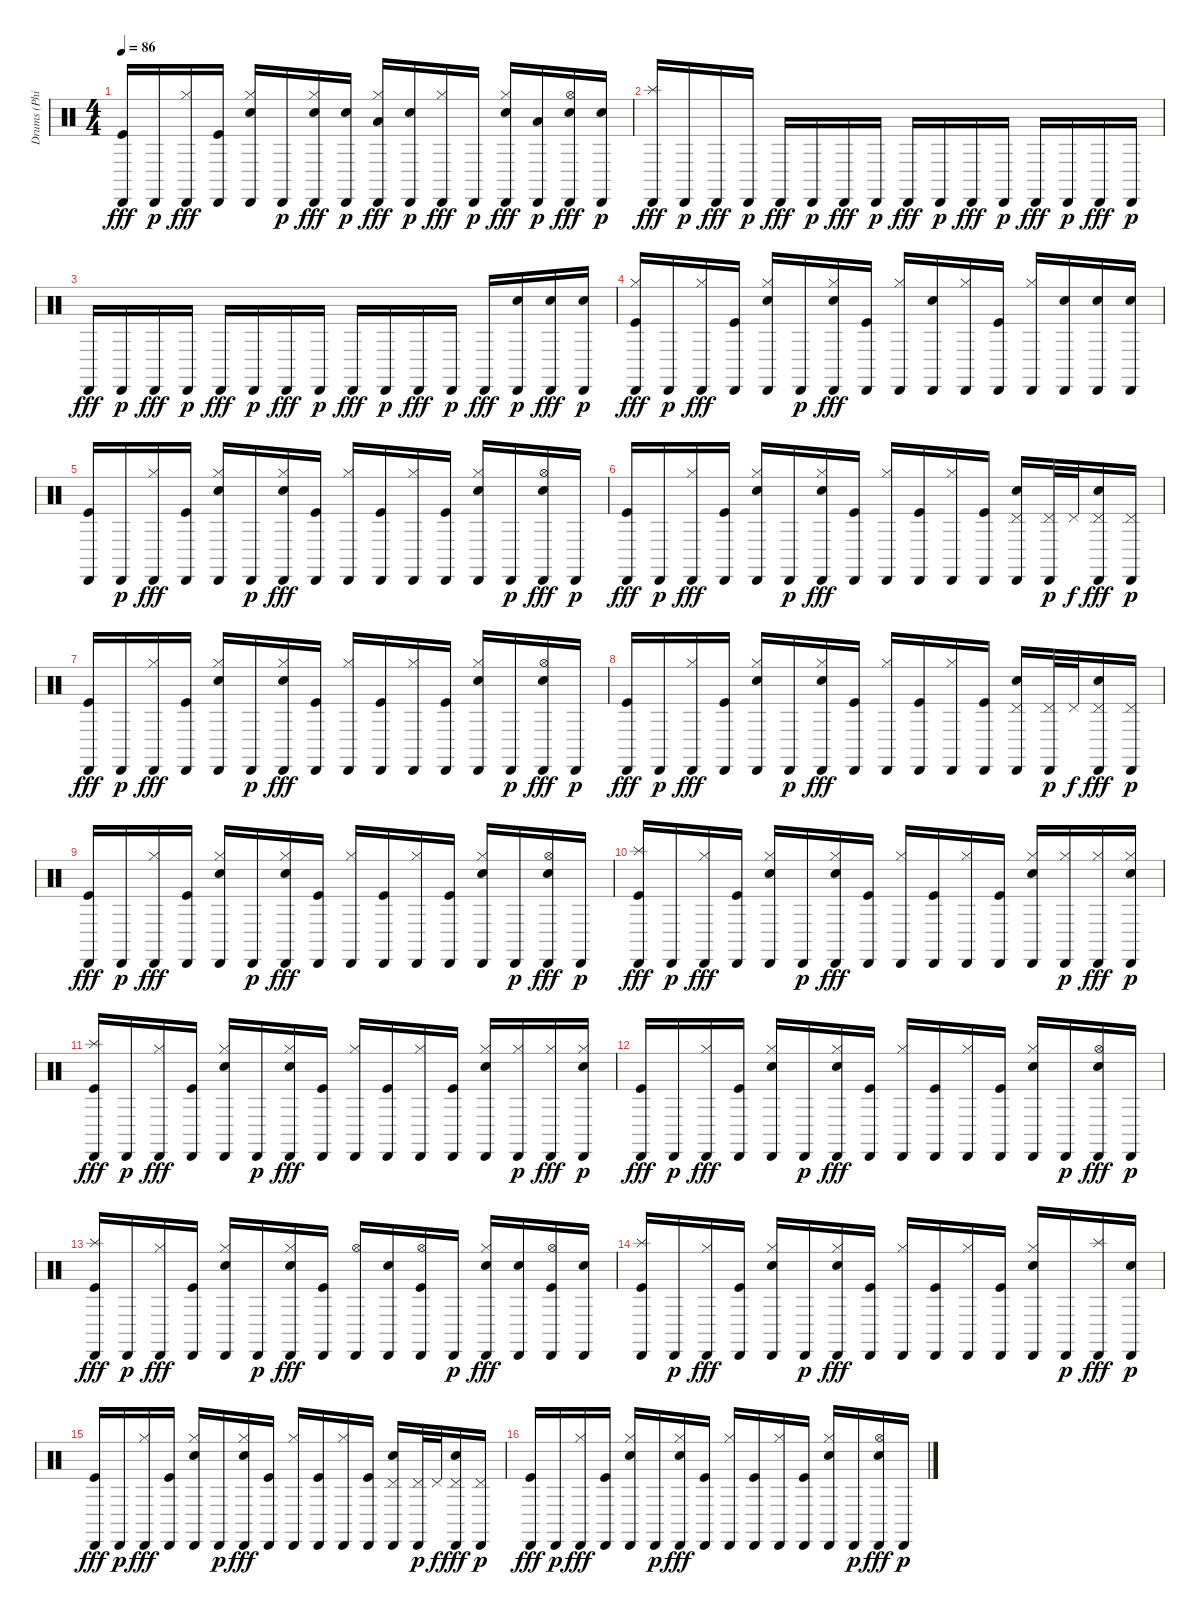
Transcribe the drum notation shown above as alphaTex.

\track ("Drums (Phil)" "Drums (Phi") {instrument percussion}
\staff {score}
\articulation defaults
\ts (4 4)
\tempo 86
\clef neutral
\ks c
("Cabasa (hit)" "Kick (hit)").16{dy fff} "Cabasa (hit)".16{dy p} ("Cabasa (hit)" "Hi-Hat (closed)").16{dy fff} ("Cabasa (hit)" "Kick (hit)").16 ("Cabasa (hit)" "Hi-Hat (closed)" "Snare (hit) 2").16 "Cabasa (hit)".16{dy p} ("Cabasa (hit)" "Hi-Hat (closed)" "Snare (hit) 2").16{dy fff} ("Cabasa (hit)" "Snare (hit) 2").16{dy p} ("Cabasa (hit)" "Hi-Hat (closed)" "Low Tom (hit)").16{dy fff} ("Cabasa (hit)" "Snare (hit) 2").16{dy p} ("Cabasa (hit)" "Hi-Hat (closed)").16{dy fff} "Cabasa (hit)".16{dy p} ("Cabasa (hit)" "Hi-Hat (closed)" "Snare (hit) 2").16{dy fff} ("Cabasa (hit)" "Low Tom (hit)").16{dy p} ("Cabasa (hit)" "Hi-Hat (open)" "Snare (hit) 2").16{dy fff} ("Cabasa (hit)" "Snare (hit) 2").16{dy p} |
("Cabasa (hit)" "Splash (hit)").16{dy fff} "Cabasa (hit)".16{dy p} "Cabasa (hit)".16{dy fff} "Cabasa (hit)".16{dy p} "Cabasa (hit)".16{dy fff} "Cabasa (hit)".16{dy p} "Cabasa (hit)".16{dy fff} "Cabasa (hit)".16{dy p} "Cabasa (hit)".16{dy fff} "Cabasa (hit)".16{dy p} "Cabasa (hit)".16{dy fff} "Cabasa (hit)".16{dy p} "Cabasa (hit)".16{dy fff} "Cabasa (hit)".16{dy p} "Cabasa (hit)".16{dy fff} "Cabasa (hit)".16{dy p} |
"Cabasa (hit)".16{dy fff} "Cabasa (hit)".16{dy p} "Cabasa (hit)".16{dy fff} "Cabasa (hit)".16{dy p} "Cabasa (hit)".16{dy fff} "Cabasa (hit)".16{dy p} "Cabasa (hit)".16{dy fff} "Cabasa (hit)".16{dy p} "Cabasa (hit)".16{dy fff} "Cabasa (hit)".16{dy p} "Cabasa (hit)".16{dy fff} "Cabasa (hit)".16{dy p} "Cabasa (hit)".16{dy fff} ("Cabasa (hit)" "Snare (hit) 2").16{dy p} ("Cabasa (hit)" "Snare (hit) 2").16{dy fff} ("Cabasa (hit)" "Snare (hit) 2").16{dy p} |
("Cabasa (hit)" "Hi-Hat (closed)" "Kick (hit)").16{dy fff} "Cabasa (hit)".16{dy p} ("Cabasa (hit)" "Hi-Hat (closed)").16{dy fff} ("Cabasa (hit)" "Kick (hit)").16 ("Cabasa (hit)" "Hi-Hat (closed)" "Snare (hit) 2").16 "Cabasa (hit)".16{dy p} ("Cabasa (hit)" "Hi-Hat (closed)" "Snare (hit) 2").16{dy fff} ("Cabasa (hit)" "Kick (hit)").16 ("Cabasa (hit)" "Hi-Hat (closed)").16 ("Cabasa (hit)" "Snare (hit) 2").16 ("Cabasa (hit)" "Hi-Hat (closed)").16 ("Cabasa (hit)" "Kick (hit)").16 ("Cabasa (hit)" "Hi-Hat (closed)").16 ("Cabasa (hit)" "Snare (hit) 2").16 ("Cabasa (hit)" "Snare (hit) 2").16 ("Cabasa (hit)" "Snare (hit) 2").16 |
("Cabasa (hit)" "Kick (hit)").16 "Cabasa (hit)".16{dy p} ("Cabasa (hit)" "Hi-Hat (closed)").16{dy fff} ("Cabasa (hit)" "Kick (hit)").16 ("Cabasa (hit)" "Hi-Hat (closed)" "Snare (hit) 2").16 "Cabasa (hit)".16{dy p} ("Cabasa (hit)" "Hi-Hat (closed)" "Snare (hit) 2").16{dy fff} ("Cabasa (hit)" "Kick (hit)").16 ("Cabasa (hit)" "Hi-Hat (closed)").16 ("Cabasa (hit)" "Kick (hit)").16 ("Cabasa (hit)" "Hi-Hat (closed)").16 ("Cabasa (hit)" "Kick (hit)").16 ("Cabasa (hit)" "Hi-Hat (closed)" "Snare (hit) 2").16 "Cabasa (hit)".16{dy p} ("Cabasa (hit)" "Hi-Hat (open)" "Snare (hit) 2").16{dy fff} "Cabasa (hit)".16{dy p} |
("Cabasa (hit)" "Kick (hit)").16{dy fff} "Cabasa (hit)".16{dy p} ("Cabasa (hit)" "Hi-Hat (closed)").16{dy fff} ("Cabasa (hit)" "Kick (hit)").16 ("Cabasa (hit)" "Hi-Hat (closed)" "Snare (hit) 2").16 "Cabasa (hit)".16{dy p} ("Cabasa (hit)" "Hi-Hat (closed)" "Snare (hit) 2").16{dy fff} ("Cabasa (hit)" "Kick (hit)").16 ("Cabasa (hit)" "Hi-Hat (closed)").16 ("Cabasa (hit)" "Kick (hit)").16 ("Cabasa (hit)" "Hi-Hat (closed)").16 ("Cabasa (hit)" "Kick (hit)").16 ("Cabasa (hit)" "Pedal Hi-Hat (hit)" "Snare (hit) 2").16 ("Cabasa (hit)" "Pedal Hi-Hat (hit)").32{dy p} "Pedal Hi-Hat (hit)".32{dy f} ("Cabasa (hit)" "Pedal Hi-Hat (hit)" "Snare (hit) 2").16{dy fff} ("Cabasa (hit)" "Pedal Hi-Hat (hit)").16{dy p} |
("Cabasa (hit)" "Kick (hit)").16{dy fff} "Cabasa (hit)".16{dy p} ("Cabasa (hit)" "Hi-Hat (closed)").16{dy fff} ("Cabasa (hit)" "Kick (hit)").16 ("Cabasa (hit)" "Hi-Hat (closed)" "Snare (hit) 2").16 "Cabasa (hit)".16{dy p} ("Cabasa (hit)" "Hi-Hat (closed)" "Snare (hit) 2").16{dy fff} ("Cabasa (hit)" "Kick (hit)").16 ("Cabasa (hit)" "Hi-Hat (closed)").16 ("Cabasa (hit)" "Kick (hit)").16 ("Cabasa (hit)" "Hi-Hat (closed)").16 ("Cabasa (hit)" "Kick (hit)").16 ("Cabasa (hit)" "Hi-Hat (closed)" "Snare (hit) 2").16 "Cabasa (hit)".16{dy p} ("Cabasa (hit)" "Hi-Hat (open)" "Snare (hit) 2").16{dy fff} "Cabasa (hit)".16{dy p} |
("Cabasa (hit)" "Kick (hit)").16{dy fff} "Cabasa (hit)".16{dy p} ("Cabasa (hit)" "Hi-Hat (closed)").16{dy fff} ("Cabasa (hit)" "Kick (hit)").16 ("Cabasa (hit)" "Hi-Hat (closed)" "Snare (hit) 2").16 "Cabasa (hit)".16{dy p} ("Cabasa (hit)" "Hi-Hat (closed)" "Snare (hit) 2").16{dy fff} ("Cabasa (hit)" "Kick (hit)").16 ("Cabasa (hit)" "Hi-Hat (closed)").16 ("Cabasa (hit)" "Kick (hit)").16 ("Cabasa (hit)" "Hi-Hat (closed)").16 ("Cabasa (hit)" "Kick (hit)").16 ("Cabasa (hit)" "Pedal Hi-Hat (hit)" "Snare (hit) 2").16 ("Cabasa (hit)" "Pedal Hi-Hat (hit)").32{dy p} "Pedal Hi-Hat (hit)".32{dy f} ("Cabasa (hit)" "Pedal Hi-Hat (hit)" "Snare (hit) 2").16{dy fff} ("Cabasa (hit)" "Pedal Hi-Hat (hit)").16{dy p} |
("Cabasa (hit)" "Kick (hit)").16{dy fff} "Cabasa (hit)".16{dy p} ("Cabasa (hit)" "Hi-Hat (closed)").16{dy fff} ("Cabasa (hit)" "Kick (hit)").16 ("Cabasa (hit)" "Hi-Hat (closed)" "Snare (hit) 2").16 "Cabasa (hit)".16{dy p} ("Cabasa (hit)" "Hi-Hat (closed)" "Snare (hit) 2").16{dy fff} ("Cabasa (hit)" "Kick (hit)").16 ("Cabasa (hit)" "Hi-Hat (closed)").16 ("Cabasa (hit)" "Kick (hit)").16 ("Cabasa (hit)" "Hi-Hat (closed)").16 ("Cabasa (hit)" "Kick (hit)").16 ("Cabasa (hit)" "Hi-Hat (closed)" "Snare (hit) 2").16 "Cabasa (hit)".16{dy p} ("Cabasa (hit)" "Hi-Hat (open)" "Snare (hit) 2").16{dy fff} "Cabasa (hit)".16{dy p} |
("Cabasa (hit)" "Splash (hit)" "Kick (hit)").16{dy fff} "Cabasa (hit)".16{dy p} ("Cabasa (hit)" "Hi-Hat (closed)").16{dy fff} ("Cabasa (hit)" "Kick (hit)").16 ("Cabasa (hit)" "Hi-Hat (closed)" "Snare (hit) 2").16 "Cabasa (hit)".16{dy p} ("Cabasa (hit)" "Hi-Hat (closed)" "Snare (hit) 2").16{dy fff} ("Cabasa (hit)" "Kick (hit)").16 ("Cabasa (hit)" "Hi-Hat (closed)").16 ("Cabasa (hit)" "Kick (hit)").16 ("Cabasa (hit)" "Hi-Hat (closed)").16 ("Cabasa (hit)" "Kick (hit)").16 ("Cabasa (hit)" "Hi-Hat (closed)" "Snare (hit) 2").16 ("Cabasa (hit)" "Hi-Hat (closed)").16{dy p} ("Cabasa (hit)" "Hi-Hat (closed)").16{dy fff} ("Cabasa (hit)" "Hi-Hat (closed)" "Snare (hit) 2").16{dy p} |
("Cabasa (hit)" "Splash (hit)" "Kick (hit)").16{dy fff} "Cabasa (hit)".16{dy p} ("Cabasa (hit)" "Hi-Hat (closed)").16{dy fff} ("Cabasa (hit)" "Kick (hit)").16 ("Cabasa (hit)" "Hi-Hat (closed)" "Snare (hit) 2").16 "Cabasa (hit)".16{dy p} ("Cabasa (hit)" "Hi-Hat (closed)" "Snare (hit) 2").16{dy fff} ("Cabasa (hit)" "Kick (hit)").16 ("Cabasa (hit)" "Hi-Hat (closed)").16 ("Cabasa (hit)" "Kick (hit)").16 ("Cabasa (hit)" "Hi-Hat (closed)").16 ("Cabasa (hit)" "Kick (hit)").16 ("Cabasa (hit)" "Hi-Hat (closed)" "Snare (hit) 2").16 ("Cabasa (hit)" "Hi-Hat (closed)").16{dy p} ("Cabasa (hit)" "Hi-Hat (closed)").16{dy fff} ("Cabasa (hit)" "Hi-Hat (closed)" "Snare (hit) 2").16{dy p} |
("Cabasa (hit)" "Kick (hit)").16{dy fff} "Cabasa (hit)".16{dy p} ("Cabasa (hit)" "Hi-Hat (closed)").16{dy fff} ("Cabasa (hit)" "Kick (hit)").16 ("Cabasa (hit)" "Hi-Hat (closed)" "Snare (hit) 2").16 "Cabasa (hit)".16{dy p} ("Cabasa (hit)" "Hi-Hat (closed)" "Snare (hit) 2").16{dy fff} ("Cabasa (hit)" "Kick (hit)").16 ("Cabasa (hit)" "Hi-Hat (closed)").16 ("Cabasa (hit)" "Kick (hit)").16 ("Cabasa (hit)" "Hi-Hat (closed)").16 ("Cabasa (hit)" "Kick (hit)").16 ("Cabasa (hit)" "Hi-Hat (closed)" "Snare (hit) 2").16 "Cabasa (hit)".16{dy p} ("Cabasa (hit)" "Hi-Hat (open)" "Snare (hit) 2").16{dy fff} "Cabasa (hit)".16{dy p} |
("Cabasa (hit)" "Splash (hit)" "Kick (hit)").16{dy fff} "Cabasa (hit)".16{dy p} ("Cabasa (hit)" "Hi-Hat (closed)").16{dy fff} ("Cabasa (hit)" "Kick (hit)").16 ("Cabasa (hit)" "Hi-Hat (closed)" "Snare (hit) 2").16 "Cabasa (hit)".16{dy p} ("Cabasa (hit)" "Hi-Hat (closed)" "Snare (hit) 2").16{dy fff} ("Cabasa (hit)" "Kick (hit)").16 ("Cabasa (hit)" "Hi-Hat (open)").16 ("Cabasa (hit)" "Snare (hit) 2").16 ("Cabasa (hit)" "Hi-Hat (open)" "Kick (hit)").16 "Cabasa (hit)".16{dy p} ("Cabasa (hit)" "Hi-Hat (closed)" "Snare (hit) 2").16{dy fff} ("Cabasa (hit)" "Snare (hit) 2").16 ("Cabasa (hit)" "Hi-Hat (open)" "Kick (hit)").16 ("Cabasa (hit)" "Snare (hit) 2").16 |
("Cabasa (hit)" "Splash (hit)" "Kick (hit)").16 "Cabasa (hit)".16{dy p} ("Cabasa (hit)" "Hi-Hat (closed)").16{dy fff} ("Cabasa (hit)" "Kick (hit)").16 ("Cabasa (hit)" "Hi-Hat (closed)" "Snare (hit) 2").16 "Cabasa (hit)".16{dy p} ("Cabasa (hit)" "Hi-Hat (closed)" "Snare (hit) 2").16{dy fff} ("Cabasa (hit)" "Kick (hit)").16 ("Cabasa (hit)" "Hi-Hat (closed)").16 ("Cabasa (hit)" "Kick (hit)").16 ("Cabasa (hit)" "Hi-Hat (closed)").16 ("Cabasa (hit)" "Kick (hit)").16 ("Cabasa (hit)" "Hi-Hat (closed)" "Snare (hit) 2").16 "Cabasa (hit)".16{dy p} ("Cabasa (hit)" "Splash (hit)").16{dy fff} ("Cabasa (hit)" "Snare (hit) 2").16{dy p} |
("Cabasa (hit)" "Kick (hit)").16{dy fff} "Cabasa (hit)".16{dy p} ("Cabasa (hit)" "Hi-Hat (closed)").16{dy fff} ("Cabasa (hit)" "Kick (hit)").16 ("Cabasa (hit)" "Hi-Hat (closed)" "Snare (hit) 2").16 "Cabasa (hit)".16{dy p} ("Cabasa (hit)" "Hi-Hat (closed)" "Snare (hit) 2").16{dy fff} ("Cabasa (hit)" "Kick (hit)").16 ("Cabasa (hit)" "Hi-Hat (closed)").16 ("Cabasa (hit)" "Kick (hit)").16 ("Cabasa (hit)" "Hi-Hat (closed)").16 ("Cabasa (hit)" "Kick (hit)").16 ("Cabasa (hit)" "Pedal Hi-Hat (hit)" "Snare (hit) 2").16 ("Cabasa (hit)" "Pedal Hi-Hat (hit)").32{dy p} "Pedal Hi-Hat (hit)".32{dy f} ("Cabasa (hit)" "Pedal Hi-Hat (hit)" "Snare (hit) 2").16{dy fff} ("Cabasa (hit)" "Pedal Hi-Hat (hit)").16{dy p} |
("Cabasa (hit)" "Kick (hit)").16{dy fff} "Cabasa (hit)".16{dy p} ("Cabasa (hit)" "Hi-Hat (closed)").16{dy fff} ("Cabasa (hit)" "Kick (hit)").16 ("Cabasa (hit)" "Hi-Hat (closed)" "Snare (hit) 2").16 "Cabasa (hit)".16{dy p} ("Cabasa (hit)" "Hi-Hat (closed)" "Snare (hit) 2").16{dy fff} ("Cabasa (hit)" "Kick (hit)").16 ("Cabasa (hit)" "Hi-Hat (closed)").16 ("Cabasa (hit)" "Kick (hit)").16 ("Cabasa (hit)" "Hi-Hat (closed)").16 ("Cabasa (hit)" "Kick (hit)").16 ("Cabasa (hit)" "Hi-Hat (closed)" "Snare (hit) 2").16 "Cabasa (hit)".16{dy p} ("Cabasa (hit)" "Hi-Hat (open)" "Snare (hit) 2").16{dy fff} "Cabasa (hit)".16{dy p}
